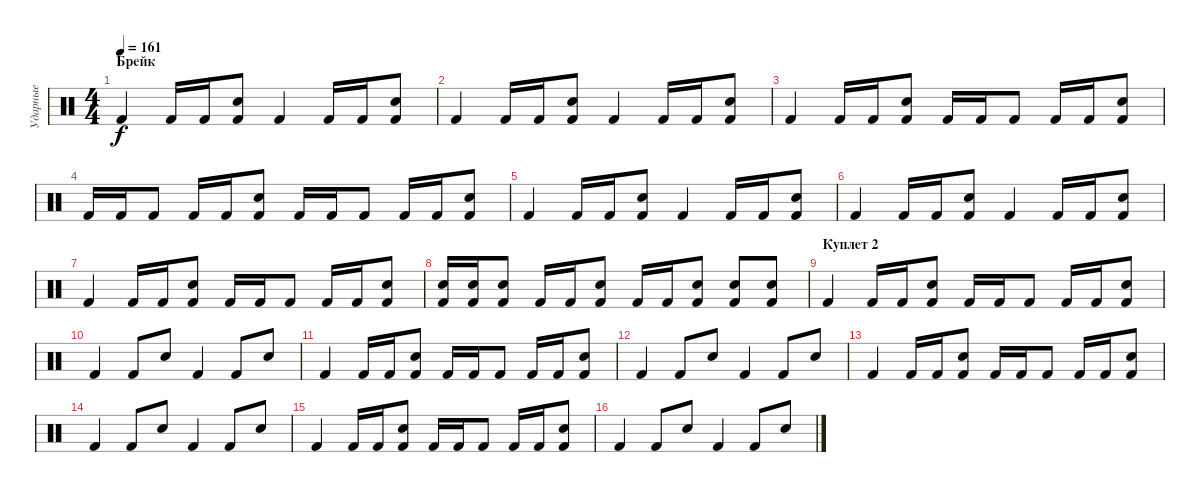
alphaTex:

\track ("Ударные" "Ударные") {instrument percussion}
\staff {score}
\articulation defaults
\ts (4 4)
\section ("" "Брейк")
\tempo 161
\clef neutral
\ks c "Kick (hit) 2".4{dy f} "Kick (hit) 2".16 "Kick (hit) 2".16
("Snare (hit) 2" "Kick (hit) 2").8 "Kick (hit) 2".4 "Kick (hit) 2".16 "Kick (hit) 2".16 ("Snare (hit) 2" "Kick (hit) 2").8 |
"Kick (hit) 2".4 "Kick (hit) 2".16 "Kick (hit) 2".16 ("Snare (hit) 2" "Kick (hit) 2").8 "Kick (hit) 2".4 "Kick (hit) 2".16 "Kick (hit) 2".16 ("Snare (hit) 2" "Kick (hit) 2").8 |
"Kick (hit) 2".4 "Kick (hit) 2".16 "Kick (hit) 2".16 ("Snare (hit) 2" "Kick (hit) 2").8 "Kick (hit) 2".16 "Kick (hit) 2".16 "Kick (hit) 2".8 "Kick (hit) 2".16 "Kick (hit) 2".16 ("Snare (hit) 2" "Kick (hit) 2").8 |
"Kick (hit) 2".16 "Kick (hit) 2".16 "Kick (hit) 2".8 "Kick (hit) 2".16 "Kick (hit) 2".16 ("Snare (hit) 2" "Kick (hit) 2").8 "Kick (hit) 2".16 "Kick (hit) 2".16 "Kick (hit) 2".8 "Kick (hit) 2".16 "Kick (hit) 2".16 ("Snare (hit) 2" "Kick (hit) 2").8 |
"Kick (hit) 2".4 "Kick (hit) 2".16 "Kick (hit) 2".16 ("Snare (hit) 2" "Kick (hit) 2").8 "Kick (hit) 2".4 "Kick (hit) 2".16 "Kick (hit) 2".16 ("Snare (hit) 2" "Kick (hit) 2").8 |
"Kick (hit) 2".4 "Kick (hit) 2".16 "Kick (hit) 2".16 ("Snare (hit) 2" "Kick (hit) 2").8 "Kick (hit) 2".4 "Kick (hit) 2".16 "Kick (hit) 2".16 ("Snare (hit) 2" "Kick (hit) 2").8 |
"Kick (hit) 2".4 "Kick (hit) 2".16 "Kick (hit) 2".16 ("Snare (hit) 2" "Kick (hit) 2").8 "Kick (hit) 2".16 "Kick (hit) 2".16 "Kick (hit) 2".8 "Kick (hit) 2".16 "Kick (hit) 2".16 ("Snare (hit) 2" "Kick (hit) 2").8 |
("Snare (hit) 2" "Kick (hit) 2").16 ("Snare (hit) 2" "Kick (hit) 2").16 ("Snare (hit) 2" "Kick (hit) 2").8 "Kick (hit) 2".16 "Kick (hit) 2".16 ("Snare (hit) 2" "Kick (hit) 2").8 "Kick (hit) 2".16 "Kick (hit) 2".16 ("Snare (hit) 2" "Kick (hit) 2").8 ("Snare (hit) 2" "Kick (hit) 2").8 ("Snare (hit) 2" "Kick (hit) 2").8 |
\section ("" "Куплет 2")
"Kick (hit) 2".4 "Kick (hit) 2".16 "Kick (hit) 2".16 ("Snare (hit) 2" "Kick (hit) 2").8 "Kick (hit) 2".16 "Kick (hit) 2".16 "Kick (hit) 2".8 "Kick (hit) 2".16 "Kick (hit) 2".16 ("Snare (hit) 2" "Kick (hit) 2").8 |
"Kick (hit) 2".4 "Kick (hit) 2".8 "Snare (hit) 2".8 "Kick (hit) 2".4 "Kick (hit) 2".8 "Snare (hit) 2".8 |
"Kick (hit) 2".4 "Kick (hit) 2".16 "Kick (hit) 2".16 ("Snare (hit) 2" "Kick (hit) 2").8 "Kick (hit) 2".16 "Kick (hit) 2".16 "Kick (hit) 2".8 "Kick (hit) 2".16 "Kick (hit) 2".16 ("Snare (hit) 2" "Kick (hit) 2").8 |
"Kick (hit) 2".4 "Kick (hit) 2".8 "Snare (hit) 2".8 "Kick (hit) 2".4 "Kick (hit) 2".8 "Snare (hit) 2".8 |
"Kick (hit) 2".4 "Kick (hit) 2".16 "Kick (hit) 2".16 ("Snare (hit) 2" "Kick (hit) 2").8 "Kick (hit) 2".16 "Kick (hit) 2".16 "Kick (hit) 2".8 "Kick (hit) 2".16 "Kick (hit) 2".16 ("Snare (hit) 2" "Kick (hit) 2").8 |
"Kick (hit) 2".4 "Kick (hit) 2".8 "Snare (hit) 2".8 "Kick (hit) 2".4 "Kick (hit) 2".8 "Snare (hit) 2".8 |
"Kick (hit) 2".4 "Kick (hit) 2".16 "Kick (hit) 2".16 ("Snare (hit) 2" "Kick (hit) 2").8 "Kick (hit) 2".16 "Kick (hit) 2".16 "Kick (hit) 2".8 "Kick (hit) 2".16 "Kick (hit) 2".16 ("Snare (hit) 2" "Kick (hit) 2").8 |
"Kick (hit) 2".4 "Kick (hit) 2".8 "Snare (hit) 2".8 "Kick (hit) 2".4 "Kick (hit) 2".8 "Snare (hit) 2".8
